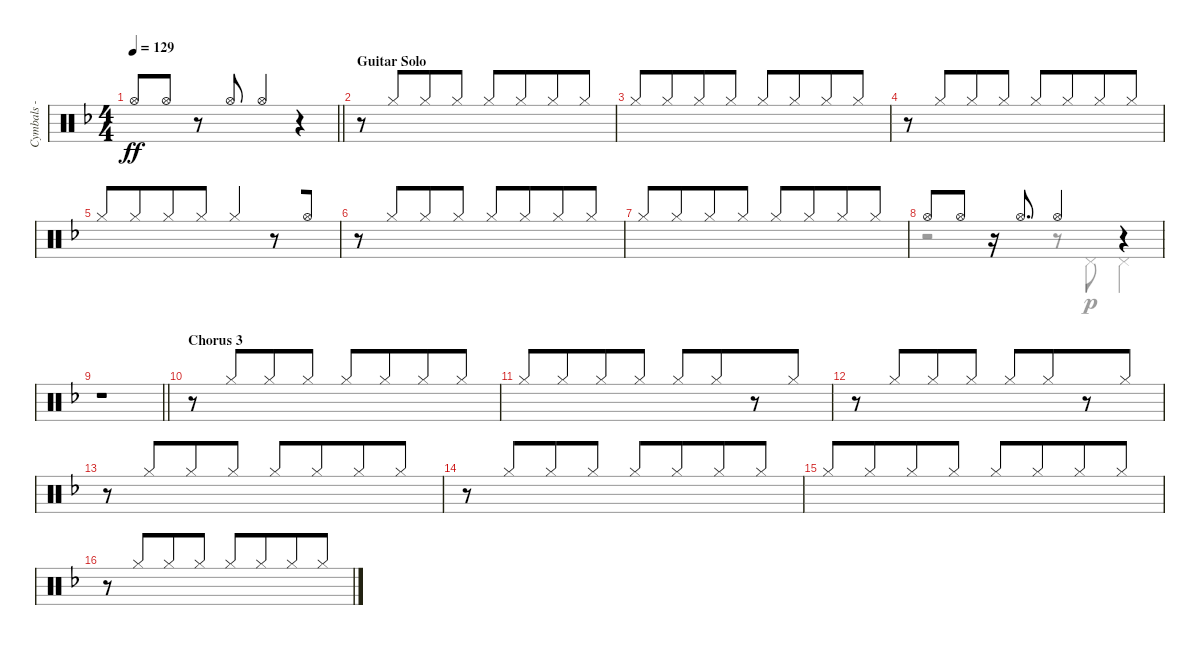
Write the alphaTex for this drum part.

\track ("Cymbals - hi-hat" "Cymbals - ") {instrument percussion}
\staff {score}
\articulation defaults
\voice
\ts (4 4)
\tempo 129
\clef neutral
\barLineRight lightlight
\ks dminor "Hi-Hat (open)".8{dy ff beam Up} "Hi-Hat (open)".8{beam Up}
r.8 "Hi-Hat (open)".8{beam Up} "Hi-Hat (open)".4{beam Up} r.4 |
\section ("" "Guitar Solo")
r.8{volume 7} "Hi-Hat (closed)".8{beam Up beam merge} "Hi-Hat (closed)".8{beam Up} "Hi-Hat (closed)".8{beam Up} "Hi-Hat (closed)".8{beam Up} "Hi-Hat (closed)".8{beam Up beam merge} "Hi-Hat (closed)".8{beam Up} "Hi-Hat (closed)".8{beam Up} |
"Hi-Hat (closed)".8{beam Up} "Hi-Hat (closed)".8{beam Up beam merge} "Hi-Hat (closed)".8{beam Up} "Hi-Hat (closed)".8{beam Up} "Hi-Hat (closed)".8{beam Up} "Hi-Hat (closed)".8{beam Up beam merge} "Hi-Hat (closed)".8{beam Up} "Hi-Hat (closed)".8{beam Up} |
r.8 "Hi-Hat (closed)".8{beam Up beam merge} "Hi-Hat (closed)".8{beam Up} "Hi-Hat (closed)".8{beam Up} "Hi-Hat (closed)".8{beam Up} "Hi-Hat (closed)".8{beam Up beam merge} "Hi-Hat (closed)".8{beam Up} "Hi-Hat (closed)".8{beam Up} |
"Hi-Hat (closed)".8{beam Up} "Hi-Hat (closed)".8{beam Up beam merge} "Hi-Hat (closed)".8{beam Up} "Hi-Hat (closed)".8{beam Up} "Hi-Hat (closed)".4{beam Up beam merge} r.8 "Hi-Hat (open)".8{beam Up} |
r.8 "Hi-Hat (closed)".8{beam Up beam merge} "Hi-Hat (closed)".8{beam Up} "Hi-Hat (closed)".8{beam Up} "Hi-Hat (closed)".8{beam Up} "Hi-Hat (closed)".8{beam Up beam merge} "Hi-Hat (closed)".8{beam Up} "Hi-Hat (closed)".8{beam Up} |
"Hi-Hat (closed)".8{beam Up} "Hi-Hat (closed)".8{beam Up beam merge} "Hi-Hat (closed)".8{beam Up} "Hi-Hat (closed)".8{beam Up} "Hi-Hat (closed)".8{beam Up} "Hi-Hat (closed)".8{beam Up beam merge} "Hi-Hat (closed)".8{beam Up} "Hi-Hat (closed)".8{beam Up} |
"Hi-Hat (open)".8{beam Up} "Hi-Hat (open)".8{beam Up} r.16{volume 10} "Hi-Hat (open)".8{d beam Up} "Hi-Hat (open)".4{beam Up} r.4 |
\barLineRight lightlight
r.1 |
\section ("" "Chorus 3")
r.8{volume 7} "Hi-Hat (closed)".8{beam Up beam merge} "Hi-Hat (closed)".8{beam Up} "Hi-Hat (closed)".8{beam Up} "Hi-Hat (closed)".8{beam Up} "Hi-Hat (closed)".8{beam Up beam merge} "Hi-Hat (closed)".8{beam Up} "Hi-Hat (closed)".8{beam Up} |
"Hi-Hat (closed)".8{beam Up} "Hi-Hat (closed)".8{beam Up beam merge} "Hi-Hat (closed)".8{beam Up} "Hi-Hat (closed)".8{beam Up} "Hi-Hat (closed)".8{beam Up} "Hi-Hat (closed)".8{beam Up beam merge} r.8 "Hi-Hat (closed)".8{beam Up} |
r.8 "Hi-Hat (closed)".8{beam Up beam merge} "Hi-Hat (closed)".8{beam Up} "Hi-Hat (closed)".8{beam Up} "Hi-Hat (closed)".8{beam Up} "Hi-Hat (closed)".8{beam Up beam merge} r.8 "Hi-Hat (closed)".8{beam Up} |
r.8 "Hi-Hat (closed)".8{beam Up beam merge} "Hi-Hat (closed)".8{beam Up} "Hi-Hat (closed)".8{beam Up} "Hi-Hat (closed)".8{beam Up} "Hi-Hat (closed)".8{beam Up beam merge} "Hi-Hat (closed)".8{beam Up} "Hi-Hat (closed)".8{beam Up} |
r.8 "Hi-Hat (closed)".8{beam Up beam merge} "Hi-Hat (closed)".8{beam Up} "Hi-Hat (closed)".8{beam Up} "Hi-Hat (closed)".8{beam Up} "Hi-Hat (closed)".8{beam Up beam merge} "Hi-Hat (closed)".8{beam Up} "Hi-Hat (closed)".8{beam Up} |
"Hi-Hat (closed)".8{beam Up} "Hi-Hat (closed)".8{beam Up beam merge} "Hi-Hat (closed)".8{beam Up} "Hi-Hat (closed)".8{beam Up} "Hi-Hat (closed)".8{beam Up} "Hi-Hat (closed)".8{beam Up beam merge} "Hi-Hat (closed)".8{beam Up} "Hi-Hat (closed)".8{beam Up} |
r.8 "Hi-Hat (closed)".8{beam Up beam merge} "Hi-Hat (closed)".8{beam Up} "Hi-Hat (closed)".8{beam Up} "Hi-Hat (closed)".8{beam Up} "Hi-Hat (closed)".8{beam Up beam merge} "Hi-Hat (closed)".8{beam Up} "Hi-Hat (closed)".8{beam Up}
\voice
\clef neutral
\ottava regular
\simile none
\barLineRight lightlight
\ks dminor
|
|
|
|
|
|
|
r.2 r.8 "Pedal Hi-Hat (hit)".8{dy p beam Down} "Pedal Hi-Hat (hit)".4{beam Down} |
\barLineRight lightlight
|
|
|
|
|
|
|
